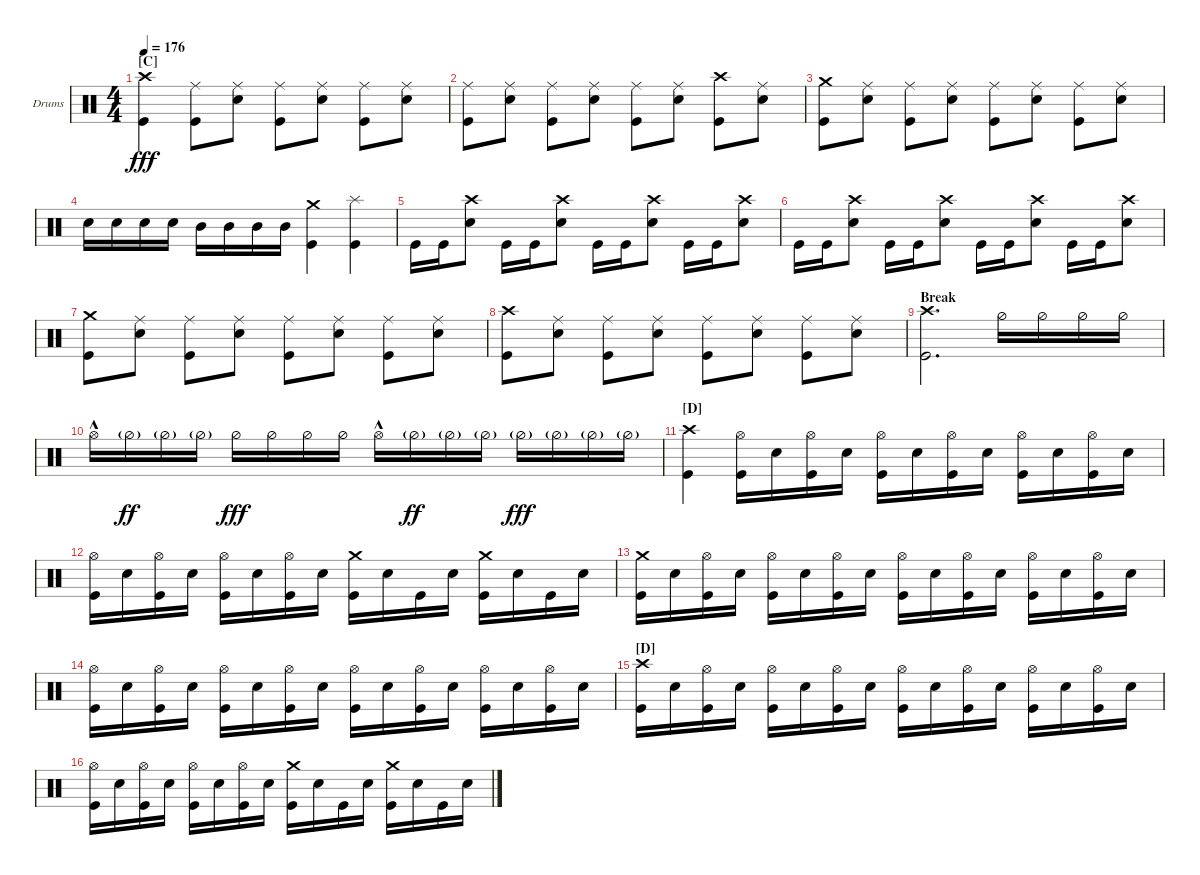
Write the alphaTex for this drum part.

\defaultSystemsLayout 4
\bracketExtendMode groupsimilarinstruments
\firstSystemTrackNameOrientation horizontal
\otherSystemsTrackNameOrientation horizontal
\track ("Drums" "Drums") {instrument percussion}
\staff {score}
\articulation defaults
\ts (4 4)
\section ("C" "")
\tempo 176
\clef neutral
\ks c
("Kick (hit)" "Crash high (hit)").4{dy fff} ("Kick (hit)" "Ride (middle)").8 ("Snare (hit) 2" "Ride (middle)").8 ("Kick (hit)" "Ride (middle)").8 ("Snare (hit) 2" "Ride (middle)").8 ("Kick (hit)" "Ride (middle)").8 ("Snare (hit) 2" "Ride (middle)").8 |
("Kick (hit)" "Ride (middle)").8 ("Snare (hit) 2" "Ride (middle)").8 ("Kick (hit)" "Ride (middle)").8 ("Snare (hit) 2" "Ride (middle)").8 ("Kick (hit)" "Ride (middle)").8 ("Snare (hit) 2" "Ride (middle)").8 ("Kick (hit)" "Crash high (hit)").8 ("Snare (hit) 2" "Ride (middle)").8 |
("Kick (hit)" "Crash medium (hit)").8 ("Snare (hit) 2" "Ride (middle)").8 ("Kick (hit)" "Ride (middle)").8 ("Snare (hit) 2" "Ride (middle)").8 ("Kick (hit)" "Ride (middle)").8 ("Snare (hit) 2" "Ride (middle)").8 ("Kick (hit)" "Ride (middle)").8 ("Snare (hit) 2" "Ride (middle)").8 |
"Snare (hit) 2".16 "Snare (hit) 2".16 "Snare (hit) 2".16 "Snare (hit) 2".16 "Mid Tom (hit)".16 "Mid Tom (hit)".16 "Mid Tom (hit)".16 "Mid Tom (hit)".16 ("Kick (hit)" "Crash medium (hit)").4 ("Kick (hit)" "Splash (hit)").4 |
"Kick (hit)".16 "Kick (hit)".16 ("Snare (hit) 2" "Crash high (hit)").8 "Kick (hit)".16 "Kick (hit)".16 ("Snare (hit) 2" "Crash high (hit)").8 "Kick (hit)".16 "Kick (hit)".16 ("Snare (hit) 2" "Crash high (hit)").8 "Kick (hit)".16 "Kick (hit)".16 ("Snare (hit) 2" "Crash high (hit)").8 |
"Kick (hit)".16 "Kick (hit)".16 ("Snare (hit) 2" "Crash high (hit)").8 "Kick (hit)".16 "Kick (hit)".16 ("Snare (hit) 2" "Crash high (hit)").8 "Kick (hit)".16 "Kick (hit)".16 ("Snare (hit) 2" "Crash high (hit)").8 "Kick (hit)".16 "Kick (hit)".16 ("Snare (hit) 2" "Crash high (hit)").8 |
("Kick (hit)" "Crash medium (hit)").8 ("Snare (hit) 2" "Ride (middle)").8 ("Kick (hit)" "Ride (middle)").8 ("Snare (hit) 2" "Ride (middle)").8 ("Kick (hit)" "Ride (middle)").8 ("Snare (hit) 2" "Ride (middle)").8 ("Kick (hit)" "Ride (middle)").8 ("Snare (hit) 2" "Ride (middle)").8 |
("Kick (hit)" "Crash high (hit)").8 ("Snare (hit) 2" "Ride (middle)").8 ("Kick (hit)" "Ride (middle)").8 ("Snare (hit) 2" "Ride (middle)").8 ("Kick (hit)" "Ride (middle)").8 ("Snare (hit) 2" "Ride (middle)").8 ("Kick (hit)" "Ride (middle)").8 ("Snare (hit) 2" "Ride (middle)").8 |
\section ("" "Break")
("Kick (hit)" "Crash high (hit)").2{d} "Hi-Hat (half)".16 "Hi-Hat (half)".16 "Hi-Hat (half)".16 "Hi-Hat (half)".16 |
"Hi-Hat (open)"{hac}.16 "Hi-Hat (half)"{g}.16{dy ff} "Hi-Hat (half)"{g}.16 "Hi-Hat (half)"{g}.16 "Hi-Hat (half)".16{dy fff} "Hi-Hat (half)".16 "Hi-Hat (half)".16 "Hi-Hat (half)".16 "Hi-Hat (open)"{hac}.16 "Hi-Hat (half)"{g}.16{dy ff} "Hi-Hat (half)"{g}.16 "Hi-Hat (half)"{g}.16 "Hi-Hat (half)"{g}.16{dy fff} "Hi-Hat (half)"{g}.16 "Hi-Hat (half)"{g}.16 "Hi-Hat (half)"{g}.16 |
\section ("D" "")
("Crash high (hit)" "Kick (hit)").4 ("Kick (hit)" "Hi-Hat (open)").16 "Snare (hit) 2".16 ("Kick (hit)" "Hi-Hat (open)").16 "Snare (hit) 2".16 ("Kick (hit)" "Hi-Hat (open)").16 "Snare (hit) 2".16 ("Kick (hit)" "Hi-Hat (open)").16 "Snare (hit) 2".16 ("Kick (hit)" "Hi-Hat (open)").16 "Snare (hit) 2".16 ("Kick (hit)" "Hi-Hat (open)").16 "Snare (hit) 2".16 |
("Kick (hit)" "Hi-Hat (open)").16 "Snare (hit) 2".16 ("Kick (hit)" "Hi-Hat (open)").16 "Snare (hit) 2".16 ("Kick (hit)" "Hi-Hat (open)").16 "Snare (hit) 2".16 ("Kick (hit)" "Hi-Hat (open)").16 "Snare (hit) 2".16 ("Kick (hit)" "Crash medium (hit)").16 "Snare (hit) 2".16 "Kick (hit)".16 "Snare (hit) 2".16 ("Kick (hit)" "Crash medium (hit)").16 "Snare (hit) 2".16 "Kick (hit)".16 "Snare (hit) 2".16 |
("Kick (hit)" "Crash medium (hit)").16 "Snare (hit) 2".16 ("Kick (hit)" "Hi-Hat (open)").16 "Snare (hit) 2".16 ("Kick (hit)" "Hi-Hat (open)").16 "Snare (hit) 2".16 ("Kick (hit)" "Hi-Hat (open)").16 "Snare (hit) 2".16 ("Kick (hit)" "Hi-Hat (open)").16 "Snare (hit) 2".16 ("Kick (hit)" "Hi-Hat (open)").16 "Snare (hit) 2".16 ("Kick (hit)" "Hi-Hat (open)").16 "Snare (hit) 2".16 ("Kick (hit)" "Hi-Hat (open)").16 "Snare (hit) 2".16 |
("Kick (hit)" "Hi-Hat (open)").16 "Snare (hit) 2".16 ("Kick (hit)" "Hi-Hat (open)").16 "Snare (hit) 2".16 ("Kick (hit)" "Hi-Hat (open)").16 "Snare (hit) 2".16 ("Kick (hit)" "Hi-Hat (open)").16 "Snare (hit) 2".16 ("Kick (hit)" "Hi-Hat (open)").16 "Snare (hit) 2".16 ("Kick (hit)" "Hi-Hat (open)").16 "Snare (hit) 2".16 ("Kick (hit)" "Hi-Hat (open)").16 "Snare (hit) 2".16 ("Kick (hit)" "Hi-Hat (open)").16 "Snare (hit) 2".16 |
\section ("D" "")
("Kick (hit)" "Crash high (hit)").16 "Snare (hit) 2".16 ("Kick (hit)" "Hi-Hat (open)").16 "Snare (hit) 2".16 ("Kick (hit)" "Hi-Hat (open)").16 "Snare (hit) 2".16 ("Kick (hit)" "Hi-Hat (open)").16 "Snare (hit) 2".16 ("Kick (hit)" "Hi-Hat (open)").16 "Snare (hit) 2".16 ("Kick (hit)" "Hi-Hat (open)").16 "Snare (hit) 2".16 ("Kick (hit)" "Hi-Hat (open)").16 "Snare (hit) 2".16 ("Kick (hit)" "Hi-Hat (open)").16 "Snare (hit) 2".16 |
("Kick (hit)" "Hi-Hat (open)").16 "Snare (hit) 2".16 ("Kick (hit)" "Hi-Hat (open)").16 "Snare (hit) 2".16 ("Kick (hit)" "Hi-Hat (open)").16 "Snare (hit) 2".16 ("Kick (hit)" "Hi-Hat (open)").16 "Snare (hit) 2".16 ("Kick (hit)" "Crash medium (hit)").16 "Snare (hit) 2".16 "Kick (hit)".16 "Snare (hit) 2".16 ("Kick (hit)" "Crash medium (hit)").16 "Snare (hit) 2".16 "Kick (hit)".16 "Snare (hit) 2".16
